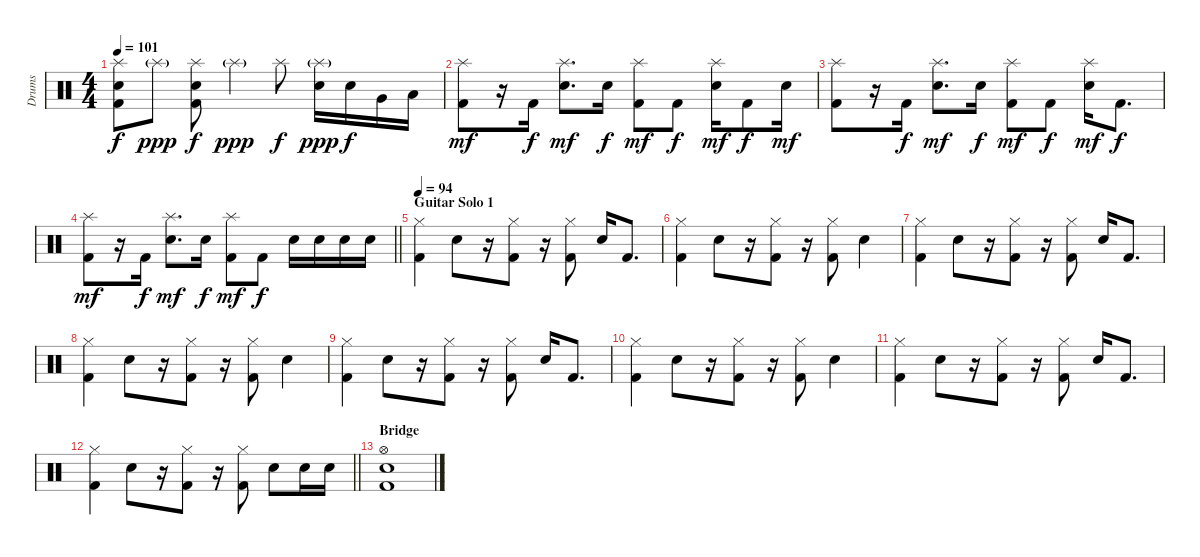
\track ("Drums" "Drums") {instrument percussion}
\staff {score}
\articulation defaults
\ts (4 4)
\tempo 101
\clef neutral
\ks c
("Splash (hit)" "Electric Snare (hit)" "Kick (hit) 2").8{dy f} "Splash (hit)"{g}.8{dy ppp} ("Splash (hit)" "Electric Snare (hit)" "Kick (hit) 2").8{dy f} "Splash (hit)"{g}.4{dy ppp} "Splash (hit)".8{dy f} ("Splash (hit)"{g} "Electric Snare (hit)").16{dy ppp} "Electric Snare (hit)".16{dy f} "Very Low Tom (hit)".16 "Low Floor Tom (hit)".16 |
("Splash (hit)" "Kick (hit) 2").8{dy mf} r.16 "Kick (hit) 2".16{dy f} ("Splash (hit)" "Electric Snare (hit)").8{d dy mf} "Electric Snare (hit)".16{dy f} ("Splash (hit)" "Kick (hit) 2").8{dy mf} "Kick (hit) 2".8{dy f} ("Splash (hit)" "Electric Snare (hit)").16{dy mf} "Kick (hit) 2".8{dy f} "Electric Snare (hit)".16{dy mf} |
("Splash (hit)" "Kick (hit) 2").8 r.16 "Kick (hit) 2".16{dy f} ("Splash (hit)" "Electric Snare (hit)").8{d dy mf} "Electric Snare (hit)".16{dy f} ("Splash (hit)" "Kick (hit) 2").8{dy mf} "Kick (hit) 2".8{dy f} ("Splash (hit)" "Electric Snare (hit)").16{dy mf} "Kick (hit) 2".8{d dy f} |
\barLineRight lightlight
("Splash (hit)" "Kick (hit) 2").8{dy mf} r.16 "Kick (hit) 2".16{dy f} ("Splash (hit)" "Electric Snare (hit)").8{d dy mf} "Electric Snare (hit)".16{dy f} ("Splash (hit)" "Kick (hit) 2").8{dy mf} "Kick (hit) 2".8{dy f} "Electric Snare (hit)".16 "Electric Snare (hit)".16 "Electric Snare (hit)".16 "Electric Snare (hit)".16 |
\section ("" "Guitar Solo 1 ")
\tempo 94
("Hi-Hat (closed)" "Kick (hit) 2").4 "Electric Snare (hit)".8 r.16 ("Hi-Hat (closed)" "Kick (hit) 2").8 r.16 ("Hi-Hat (closed)" "Kick (hit) 2").8 "Electric Snare (hit)".16 "Kick (hit) 2".8{d} |
("Hi-Hat (closed)" "Kick (hit) 2").4 "Electric Snare (hit)".8 r.16 ("Hi-Hat (closed)" "Kick (hit) 2").8 r.16 ("Hi-Hat (closed)" "Kick (hit) 2").8 "Electric Snare (hit)".4 |
("Hi-Hat (closed)" "Kick (hit) 2").4 "Electric Snare (hit)".8 r.16 ("Hi-Hat (closed)" "Kick (hit) 2").8 r.16 ("Hi-Hat (closed)" "Kick (hit) 2").8 "Electric Snare (hit)".16 "Kick (hit) 2".8{d} |
("Hi-Hat (closed)" "Kick (hit) 2").4 "Electric Snare (hit)".8 r.16 ("Hi-Hat (closed)" "Kick (hit) 2").8 r.16 ("Hi-Hat (closed)" "Kick (hit) 2").8 "Electric Snare (hit)".4 |
("Hi-Hat (closed)" "Kick (hit) 2").4 "Electric Snare (hit)".8 r.16 ("Hi-Hat (closed)" "Kick (hit) 2").8 r.16 ("Hi-Hat (closed)" "Kick (hit) 2").8 "Electric Snare (hit)".16 "Kick (hit) 2".8{d} |
("Hi-Hat (closed)" "Kick (hit) 2").4 "Electric Snare (hit)".8 r.16 ("Hi-Hat (closed)" "Kick (hit) 2").8 r.16 ("Hi-Hat (closed)" "Kick (hit) 2").8 "Electric Snare (hit)".4 |
("Hi-Hat (closed)" "Kick (hit) 2").4 "Electric Snare (hit)".8 r.16 ("Hi-Hat (closed)" "Kick (hit) 2").8 r.16 ("Hi-Hat (closed)" "Kick (hit) 2").8 "Electric Snare (hit)".16 "Kick (hit) 2".8{d} |
\barLineRight lightlight
("Hi-Hat (closed)" "Kick (hit) 2").4 "Electric Snare (hit)".8 r.16 ("Hi-Hat (closed)" "Kick (hit) 2").8 r.16 ("Hi-Hat (closed)" "Kick (hit) 2").8 "Electric Snare (hit)".8 "Electric Snare (hit)".16 "Electric Snare (hit)".16 |
\section ("" "Bridge")
("Hi-Hat (open)" "Electric Snare (hit)" "Kick (hit) 2").1
